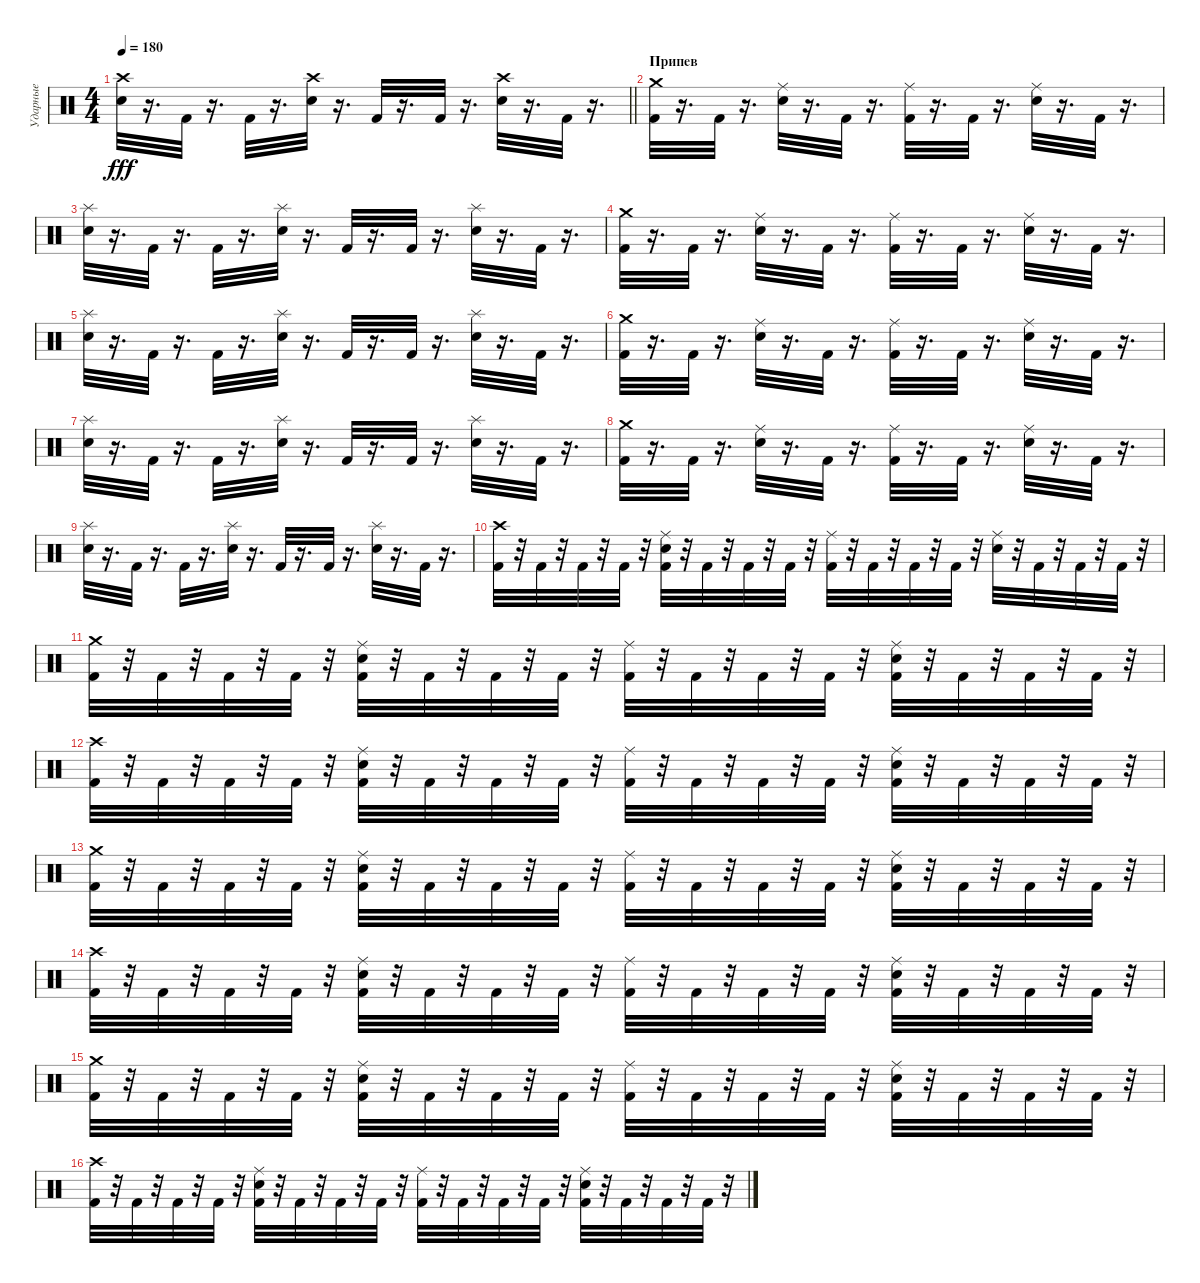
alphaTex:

\track ("Ударные" "Ударные") {instrument percussion}
\staff {score}
\articulation defaults
\ts (4 4)
\tempo 180
\clef neutral
\barLineRight lightlight
\ks c
("Crash high (hit)" "Snare (hit) 2").32{dy fff} r.16{d} "Kick (hit) 2".32 r.16{d} "Kick (hit) 2".32 r.16{d} ("Crash high (hit)" "Snare (hit) 2").32 r.16{d} "Kick (hit) 2".32 r.16{d} "Kick (hit) 2".32 r.16{d} ("Snare (hit) 2" "Crash high (hit)").32 r.16{d} "Kick (hit) 2".32 r.16{d} |
\section ("" "Припев")
("Crash medium (hit)" "Kick (hit) 2").32 r.16{d} "Kick (hit) 2".32 r.16{d} ("Snare (hit) 2" "Ride (middle)").32 r.16{d} "Kick (hit) 2".32 r.16{d} ("Kick (hit) 2" "Ride (middle)").32 r.16{d} "Kick (hit) 2".32 r.16{d} ("Snare (hit) 2" "Ride (middle)").32 r.16{d} "Kick (hit) 2".32 r.16{d} |
("Snare (hit) 2" "Splash (hit)").32 r.16{d} "Kick (hit) 2".32 r.16{d} "Kick (hit) 2".32 r.16{d} ("Snare (hit) 2" "Splash (hit)").32 r.16{d} "Kick (hit) 2".32 r.16{d} "Kick (hit) 2".32 r.16{d} ("Snare (hit) 2" "Splash (hit)").32 r.16{d} "Kick (hit) 2".32 r.16{d} |
("Kick (hit) 2" "Crash medium (hit)").32 r.16{d} "Kick (hit) 2".32 r.16{d} ("Ride (middle)" "Snare (hit) 2").32 r.16{d} "Kick (hit) 2".32 r.16{d} ("Ride (middle)" "Kick (hit) 2").32 r.16{d} "Kick (hit) 2".32 r.16{d} ("Ride (middle)" "Snare (hit) 2").32 r.16{d} "Kick (hit) 2".32 r.16{d} |
("Splash (hit)" "Snare (hit) 2").32 r.16{d} "Kick (hit) 2".32 r.16{d} "Kick (hit) 2".32 r.16{d} ("Splash (hit)" "Snare (hit) 2").32 r.16{d} "Kick (hit) 2".32 r.16{d} "Kick (hit) 2".32 r.16{d} ("Snare (hit) 2" "Splash (hit)").32 r.16{d} "Kick (hit) 2".32 r.16{d} |
("Kick (hit) 2" "Crash medium (hit)").32 r.16{d} "Kick (hit) 2".32 r.16{d} ("Ride (middle)" "Snare (hit) 2").32 r.16{d} "Kick (hit) 2".32 r.16{d} ("Kick (hit) 2" "Ride (middle)").32 r.16{d} "Kick (hit) 2".32 r.16{d} ("Snare (hit) 2" "Ride (middle)").32 r.16{d} "Kick (hit) 2".32 r.16{d} |
("Splash (hit)" "Snare (hit) 2").32 r.16{d} "Kick (hit) 2".32 r.16{d} "Kick (hit) 2".32 r.16{d} ("Splash (hit)" "Snare (hit) 2").32 r.16{d} "Kick (hit) 2".32 r.16{d} "Kick (hit) 2".32 r.16{d} ("Snare (hit) 2" "Splash (hit)").32 r.16{d} "Kick (hit) 2".32 r.16{d} |
("Crash medium (hit)" "Kick (hit) 2").32 r.16{d} "Kick (hit) 2".32 r.16{d} ("Ride (middle)" "Snare (hit) 2").32 r.16{d} "Kick (hit) 2".32 r.16{d} ("Ride (middle)" "Kick (hit) 2").32 r.16{d} "Kick (hit) 2".32 r.16{d} ("Snare (hit) 2" "Ride (middle)").32 r.16{d} "Kick (hit) 2".32 r.16{d} |
("Splash (hit)" "Snare (hit) 2").32 r.16{d} "Kick (hit) 2".32 r.16{d} "Kick (hit) 2".32 r.16{d} ("Splash (hit)" "Snare (hit) 2").32 r.16{d} "Kick (hit) 2".32 r.16{d} "Kick (hit) 2".32 r.16{d} ("Splash (hit)" "Snare (hit) 2").32 r.16{d} "Kick (hit) 2".32 r.16{d} |
("Crash high (hit)" "Kick (hit) 2").32 r.32 "Kick (hit) 2".32 r.32 "Kick (hit) 2".32 r.32 "Kick (hit) 2".32 r.32 ("Kick (hit) 2" "Ride (middle)" "Snare (hit) 2").32 r.32 "Kick (hit) 2".32 r.32 "Kick (hit) 2".32 r.32 "Kick (hit) 2".32 r.32 ("Kick (hit) 2" "Ride (middle)").32 r.32 "Kick (hit) 2".32 r.32 "Kick (hit) 2".32 r.32 "Kick (hit) 2".32 r.32 ("Snare (hit) 2" "Ride (middle)").32 r.32 "Kick (hit) 2".32 r.32 "Kick (hit) 2".32 r.32 "Kick (hit) 2".32 r.32 |
("Kick (hit) 2" "Crash medium (hit)").32 r.32 "Kick (hit) 2".32 r.32 "Kick (hit) 2".32 r.32 "Kick (hit) 2".32 r.32 ("Snare (hit) 2" "Kick (hit) 2" "Ride (middle)").32 r.32 "Kick (hit) 2".32 r.32 "Kick (hit) 2".32 r.32 "Kick (hit) 2".32 r.32 ("Ride (middle)" "Kick (hit) 2").32 r.32 "Kick (hit) 2".32 r.32 "Kick (hit) 2".32 r.32 "Kick (hit) 2".32 r.32 ("Snare (hit) 2" "Ride (middle)" "Kick (hit) 2").32 r.32 "Kick (hit) 2".32 r.32 "Kick (hit) 2".32 r.32 "Kick (hit) 2".32 r.32 |
("Kick (hit) 2" "Crash high (hit)").32 r.32 "Kick (hit) 2".32 r.32 "Kick (hit) 2".32 r.32 "Kick (hit) 2".32 r.32 ("Ride (middle)" "Kick (hit) 2" "Snare (hit) 2").32 r.32 "Kick (hit) 2".32 r.32 "Kick (hit) 2".32 r.32 "Kick (hit) 2".32 r.32 ("Kick (hit) 2" "Ride (middle)").32 r.32 "Kick (hit) 2".32 r.32 "Kick (hit) 2".32 r.32 "Kick (hit) 2".32 r.32 ("Snare (hit) 2" "Kick (hit) 2" "Ride (middle)").32 r.32 "Kick (hit) 2".32 r.32 "Kick (hit) 2".32 r.32 "Kick (hit) 2".32 r.32 |
("Kick (hit) 2" "Crash medium (hit)").32 r.32 "Kick (hit) 2".32 r.32 "Kick (hit) 2".32 r.32 "Kick (hit) 2".32 r.32 ("Ride (middle)" "Kick (hit) 2" "Snare (hit) 2").32 r.32 "Kick (hit) 2".32 r.32 "Kick (hit) 2".32 r.32 "Kick (hit) 2".32 r.32 ("Kick (hit) 2" "Ride (middle)").32 r.32 "Kick (hit) 2".32 r.32 "Kick (hit) 2".32 r.32 "Kick (hit) 2".32 r.32 ("Snare (hit) 2" "Ride (middle)" "Kick (hit) 2").32 r.32 "Kick (hit) 2".32 r.32 "Kick (hit) 2".32 r.32 "Kick (hit) 2".32 r.32 |
("Crash high (hit)" "Kick (hit) 2").32 r.32 "Kick (hit) 2".32 r.32 "Kick (hit) 2".32 r.32 "Kick (hit) 2".32 r.32 ("Snare (hit) 2" "Kick (hit) 2" "Ride (middle)").32 r.32 "Kick (hit) 2".32 r.32 "Kick (hit) 2".32 r.32 "Kick (hit) 2".32 r.32 ("Kick (hit) 2" "Ride (middle)").32 r.32 "Kick (hit) 2".32 r.32 "Kick (hit) 2".32 r.32 "Kick (hit) 2".32 r.32 ("Snare (hit) 2" "Ride (middle)" "Kick (hit) 2").32 r.32 "Kick (hit) 2".32 r.32 "Kick (hit) 2".32 r.32 "Kick (hit) 2".32 r.32 |
("Kick (hit) 2" "Crash medium (hit)").32 r.32 "Kick (hit) 2".32 r.32 "Kick (hit) 2".32 r.32 "Kick (hit) 2".32 r.32 ("Kick (hit) 2" "Ride (middle)" "Snare (hit) 2").32 r.32 "Kick (hit) 2".32 r.32 "Kick (hit) 2".32 r.32 "Kick (hit) 2".32 r.32 ("Ride (middle)" "Kick (hit) 2").32 r.32 "Kick (hit) 2".32 r.32 "Kick (hit) 2".32 r.32 "Kick (hit) 2".32 r.32 ("Ride (middle)" "Kick (hit) 2" "Snare (hit) 2").32 r.32 "Kick (hit) 2".32 r.32 "Kick (hit) 2".32 r.32 "Kick (hit) 2".32 r.32 |
("Kick (hit) 2" "Crash high (hit)").32 r.32 "Kick (hit) 2".32 r.32 "Kick (hit) 2".32 r.32 "Kick (hit) 2".32 r.32 ("Ride (middle)" "Snare (hit) 2" "Kick (hit) 2").32 r.32 "Kick (hit) 2".32 r.32 "Kick (hit) 2".32 r.32 "Kick (hit) 2".32 r.32 ("Kick (hit) 2" "Ride (middle)").32 r.32 "Kick (hit) 2".32 r.32 "Kick (hit) 2".32 r.32 "Kick (hit) 2".32 r.32 ("Ride (middle)" "Kick (hit) 2" "Snare (hit) 2").32 r.32 "Kick (hit) 2".32 r.32 "Kick (hit) 2".32 r.32 "Kick (hit) 2".32 r.32
